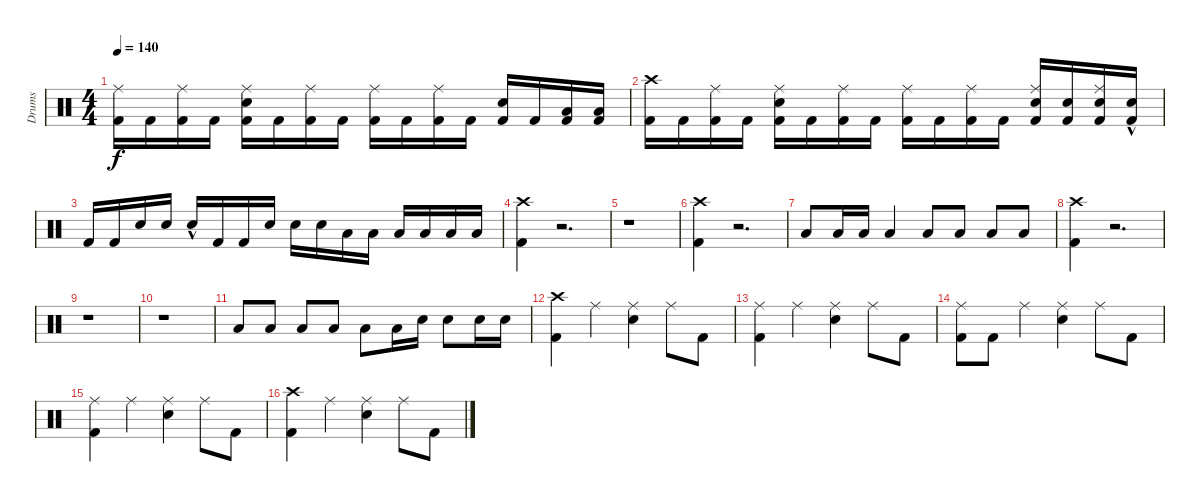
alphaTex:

\track ("Drums" "Drums") {instrument percussion}
\staff {score}
\articulation defaults
\ts (4 4)
\tempo 140
\clef neutral
\ks c
("Kick (hit) 2" "Ride (middle)").16{dy f} "Kick (hit) 2".16 ("Kick (hit) 2" "Ride (middle)").16 "Kick (hit) 2".16 ("Ride (middle)" "Kick (hit) 2" "Snare (hit) 2").16 "Kick (hit) 2".16 ("Ride (middle)" "Kick (hit) 2").16 "Kick (hit) 2".16 ("Kick (hit) 2" "Ride (middle)").16 "Kick (hit) 2".16 ("Kick (hit) 2" "Ride (middle)").16 "Kick (hit) 2".16 ("Kick (hit) 2" "Snare (hit) 2").16 "Kick (hit) 2".16 ("Kick (hit) 2" "Low Floor Tom (hit)").16 ("Low Floor Tom (hit)" "Kick (hit) 2").16 |
("Crash high (hit)" "Kick (hit) 2").16 "Kick (hit) 2".16 ("Kick (hit) 2" "Ride (middle)").16 "Kick (hit) 2".16 ("Ride (middle)" "Kick (hit) 2" "Snare (hit) 2").16 "Kick (hit) 2".16 ("Ride (middle)" "Kick (hit) 2").16 "Kick (hit) 2".16 ("Kick (hit) 2" "Ride (middle)").16 "Kick (hit) 2".16 ("Kick (hit) 2" "Ride (middle)").16 "Kick (hit) 2".16 ("Ride (middle)" "Kick (hit) 2" "Snare (hit) 2").16 ("Kick (hit) 2" "Snare (hit) 2").16 ("Ride (middle)" "Snare (hit) 2" "Kick (hit) 2").16 ("Kick (hit) 2" "Snare (hit) 2"{hac}).16 |
"Kick (hit) 2".16 "Kick (hit) 2".16 "Snare (hit) 2".16 "Snare (hit) 2".16 "Snare (hit) 2"{hac}.16 "Kick (hit) 2".16 "Kick (hit) 2".16 "Snare (hit) 2".16 "Snare (hit) 2".16 "Snare (hit) 2".16 "Low Tom (hit)".16 "Low Tom (hit)".16 "Low Tom (hit)".16 "Low Tom (hit)".16 "Low Floor Tom (hit)".16 "Low Floor Tom (hit)".16 |
("Kick (hit) 2" "Crash high (hit)").4 r.2{d} |
r.1 |
("Kick (hit) 2" "Crash high (hit)").4 r.2{d} |
"Low Tom (hit)".8 "Low Tom (hit)".16 "Low Tom (hit)".16 "Low Tom (hit)".4 "Low Tom (hit)".8 "Low Tom (hit)".8 "Low Floor Tom (hit)".8 "Low Floor Tom (hit)".8 |
("Kick (hit) 2" "Crash high (hit)").4 r.2{d} |
r.1 |
r.1 |
"Low Tom (hit)".8 "Low Tom (hit)".8 "Low Floor Tom (hit)".8 "Low Floor Tom (hit)".8 "Low Floor Tom (hit)".8 "Low Floor Tom (hit)".16 "Snare (hit) 2".16 "Snare (hit) 2".8 "Snare (hit) 2".16 "Snare (hit) 2".16 |
("Kick (hit) 2" "Crash high (hit)").4 "Ride (middle)".4 ("Snare (hit) 2" "Ride (middle)").4 "Ride (middle)".8 "Kick (hit) 2".8 |
("Kick (hit) 2" "Ride (middle)").4 "Ride (middle)".4 ("Snare (hit) 2" "Ride (middle)").4 "Ride (middle)".8 "Kick (hit) 2".8 |
("Ride (middle)" "Kick (hit) 2").8 "Kick (hit) 2".8 "Ride (middle)".4 ("Snare (hit) 2" "Ride (middle)").4 "Ride (middle)".8 "Kick (hit) 2".8 |
("Kick (hit) 2" "Ride (middle)").4 "Ride (middle)".4 ("Snare (hit) 2" "Ride (middle)").4 "Ride (middle)".8 "Kick (hit) 2".8 |
("Kick (hit) 2" "Crash high (hit)").4 "Ride (middle)".4 ("Snare (hit) 2" "Ride (middle)").4 "Ride (middle)".8 "Kick (hit) 2".8
